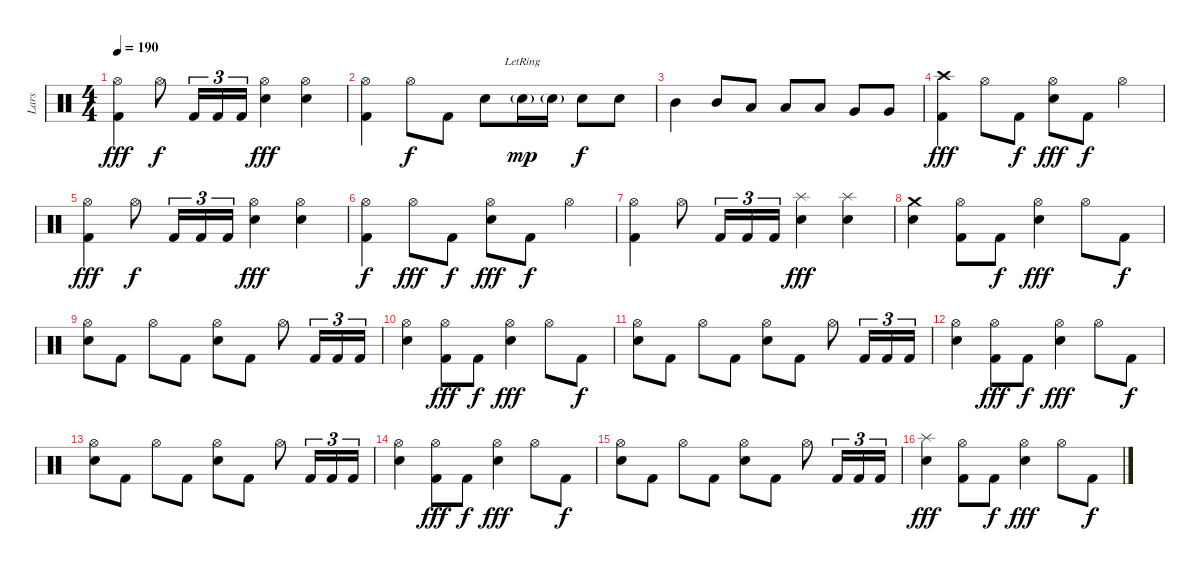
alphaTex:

\track ("Lars" "Lars") {instrument percussion}
\staff {score}
\articulation defaults
\ts (4 4)
\tempo 190
\clef neutral
\ks c
("Hi-Hat (open)" "Kick (hit) 2").4{dy fff} "Hi-Hat (open)".8{dy f} "Kick (hit) 2".16{tu (3 2)} "Kick (hit) 2".16{tu (3 2)} "Kick (hit) 2".16{tu (3 2)} ("Hi-Hat (open)" "Snare (hit) 2").4{dy fff} ("Hi-Hat (open)" "Snare (hit) 2").4 |
("Hi-Hat (open)" "Kick (hit) 2").4 "Hi-Hat (open)".8{dy f} "Kick (hit) 2".8 "Snare (hit) 2".8 "Snare (hit) 2"{g lr}.16{dy mp} "Snare (hit) 2"{g}.16 "Snare (hit) 2".8{dy f} "Snare (hit) 2".8 |
"Mid Tom (hit)".4 "Mid Tom (hit)".8 "Low Tom (hit)".8 "Low Tom (hit)".8 "Low Tom (hit)".8 "Very Low Tom (hit)".8 "Very Low Tom (hit)".8 |
("Crash high (hit)" "Kick (hit) 2").4{dy fff} "Hi-Hat (open)".8 "Kick (hit) 2".8{dy f} ("Hi-Hat (open)" "Snare (hit) 2").8{dy fff} "Kick (hit) 2".8{dy f} "Hi-Hat (open)".4 |
("Hi-Hat (open)" "Kick (hit) 2").4{dy fff} "Hi-Hat (open)".8{dy f} "Kick (hit) 2".16{tu (3 2)} "Kick (hit) 2".16{tu (3 2)} "Kick (hit) 2".16{tu (3 2)} ("Hi-Hat (open)" "Snare (hit) 2").4{dy fff} ("Hi-Hat (open)" "Snare (hit) 2").4 |
("Hi-Hat (open)" "Kick (hit) 2").4{dy f} "Hi-Hat (open)".8{dy fff} "Kick (hit) 2".8{dy f} ("Hi-Hat (open)" "Snare (hit) 2").8{dy fff} "Kick (hit) 2".8{dy f} "Hi-Hat (open)".4 |
("Hi-Hat (open)" "Kick (hit) 2").4 "Hi-Hat (open)".8 "Kick (hit) 2".16{tu (3 2)} "Kick (hit) 2".16{tu (3 2)} "Kick (hit) 2".16{tu (3 2)} ("Splash (hit)" "Snare (hit) 2").4{dy fff} ("Splash (hit)" "Snare (hit) 2").4 |
("Crash medium (hit)" "Snare (hit) 2").4 ("Hi-Hat (open)" "Kick (hit) 2").8 "Kick (hit) 2".8{dy f} ("Hi-Hat (open)" "Snare (hit) 2").4{dy fff} "Hi-Hat (open)".8 "Kick (hit) 2".8{dy f} |
("Hi-Hat (open)" "Snare (hit) 2").8 "Kick (hit) 2".8 "Hi-Hat (open)".8 "Kick (hit) 2".8 ("Hi-Hat (open)" "Snare (hit) 2").8 "Kick (hit) 2".8 "Hi-Hat (open)".8 "Kick (hit) 2".16{tu (3 2)} "Kick (hit) 2".16{tu (3 2)} "Kick (hit) 2".16{tu (3 2)} |
("Hi-Hat (open)" "Snare (hit) 2").4 ("Hi-Hat (open)" "Kick (hit) 2").8{dy fff} "Kick (hit) 2".8{dy f} ("Hi-Hat (open)" "Snare (hit) 2").4{dy fff} "Hi-Hat (open)".8 "Kick (hit) 2".8{dy f} |
("Hi-Hat (open)" "Snare (hit) 2").8 "Kick (hit) 2".8 "Hi-Hat (open)".8 "Kick (hit) 2".8 ("Hi-Hat (open)" "Snare (hit) 2").8 "Kick (hit) 2".8 "Hi-Hat (open)".8 "Kick (hit) 2".16{tu (3 2)} "Kick (hit) 2".16{tu (3 2)} "Kick (hit) 2".16{tu (3 2)} |
("Hi-Hat (open)" "Snare (hit) 2").4 ("Hi-Hat (open)" "Kick (hit) 2").8{dy fff} "Kick (hit) 2".8{dy f} ("Hi-Hat (open)" "Snare (hit) 2").4{dy fff} "Hi-Hat (open)".8 "Kick (hit) 2".8{dy f} |
("Hi-Hat (open)" "Snare (hit) 2").8 "Kick (hit) 2".8 "Hi-Hat (open)".8 "Kick (hit) 2".8 ("Hi-Hat (open)" "Snare (hit) 2").8 "Kick (hit) 2".8 "Hi-Hat (open)".8 "Kick (hit) 2".16{tu (3 2)} "Kick (hit) 2".16{tu (3 2)} "Kick (hit) 2".16{tu (3 2)} |
("Hi-Hat (open)" "Snare (hit) 2").4 ("Hi-Hat (open)" "Kick (hit) 2").8{dy fff} "Kick (hit) 2".8{dy f} ("Hi-Hat (open)" "Snare (hit) 2").4{dy fff} "Hi-Hat (open)".8 "Kick (hit) 2".8{dy f} |
("Hi-Hat (open)" "Snare (hit) 2").8 "Kick (hit) 2".8 "Hi-Hat (open)".8 "Kick (hit) 2".8 ("Hi-Hat (open)" "Snare (hit) 2").8 "Kick (hit) 2".8 "Hi-Hat (open)".8 "Kick (hit) 2".16{tu (3 2)} "Kick (hit) 2".16{tu (3 2)} "Kick (hit) 2".16{tu (3 2)} |
("Splash (hit)" "Snare (hit) 2").4{dy fff} ("Hi-Hat (open)" "Kick (hit) 2").8 "Kick (hit) 2".8{dy f} ("Hi-Hat (open)" "Snare (hit) 2").4{dy fff} "Hi-Hat (open)".8 "Kick (hit) 2".8{dy f}
